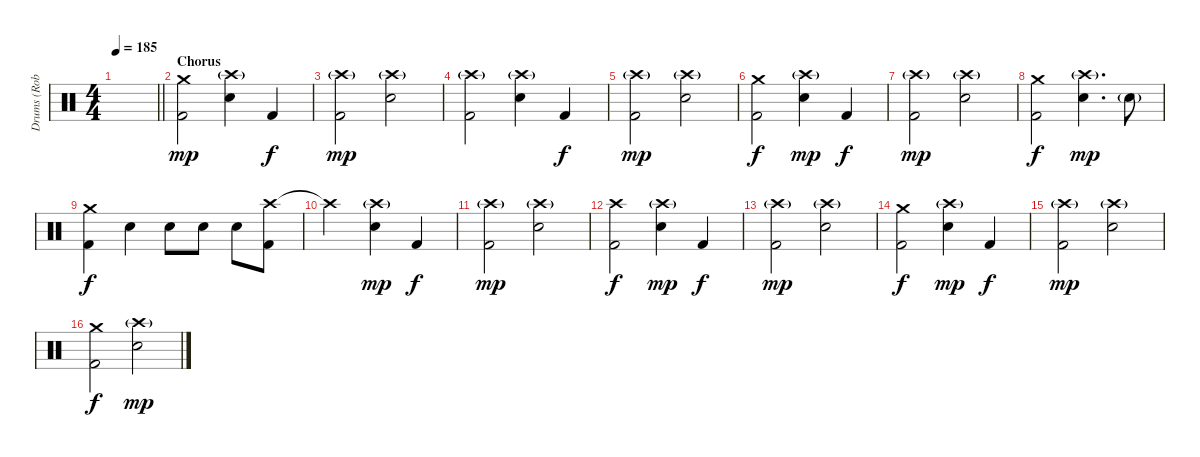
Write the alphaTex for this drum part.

\track ("Drums (Robert Ortiz)" "Drums (Rob") {instrument percussion}
\staff {score}
\articulation defaults
\ts (4 4)
\tempo 185
\clef neutral
\barLineRight lightlight
\ks c
|
\section ("" "Chorus")
("Crash medium (hit)" "Kick (hit) 2").2{dy mp} ("Crash high (hit)"{g} "Electric Snare (hit)").4 "Kick (hit) 2".4{dy f} |
("Crash high (hit)"{g} "Kick (hit) 2").2{dy mp} ("Crash high (hit)"{g} "Electric Snare (hit)").2 |
("Crash high (hit)"{g} "Kick (hit) 2").2 ("Crash high (hit)"{g} "Electric Snare (hit)").4 "Kick (hit) 2".4{dy f} |
("Crash high (hit)"{g} "Kick (hit) 2").2{dy mp} ("Crash high (hit)"{g} "Electric Snare (hit)").2 |
("Crash medium (hit)" "Kick (hit) 2").2{dy f} ("Crash high (hit)"{g} "Electric Snare (hit)").4{dy mp} "Kick (hit) 2".4{dy f} |
("Crash high (hit)"{g} "Kick (hit) 2").2{dy mp} ("Crash high (hit)"{g} "Electric Snare (hit)").2 |
("Crash medium (hit)" "Kick (hit) 2").2{dy f} ("Crash high (hit)"{g} "Electric Snare (hit)").4{d dy mp} "Electric Snare (hit)"{g}.8 |
("Crash medium (hit)" "Kick (hit) 2").4{dy f} "Electric Snare (hit)".4 "Electric Snare (hit)".8 "Electric Snare (hit)".8 "Electric Snare (hit)".8 ("Crash high (hit)" "Kick (hit) 2").8 |
"Crash high (hit)"{t}.2 ("Crash high (hit)"{g} "Electric Snare (hit)").4{dy mp} "Kick (hit) 2".4{dy f} |
("Crash high (hit)"{g} "Kick (hit) 2").2{dy mp} ("Crash high (hit)"{g} "Electric Snare (hit)").2 |
("Crash high (hit)" "Kick (hit) 2").2{dy f} ("Crash high (hit)"{g} "Electric Snare (hit)").4{dy mp} "Kick (hit) 2".4{dy f} |
("Crash high (hit)"{g} "Kick (hit) 2").2{dy mp} ("Crash high (hit)"{g} "Electric Snare (hit)").2 |
("Crash medium (hit)" "Kick (hit) 2").2{dy f} ("Crash high (hit)"{g} "Electric Snare (hit)").4{dy mp} "Kick (hit) 2".4{dy f} |
("Crash high (hit)"{g} "Kick (hit) 2").2{dy mp} ("Crash high (hit)"{g} "Electric Snare (hit)").2 |
("Crash medium (hit)" "Kick (hit) 2").2{dy f} ("Crash high (hit)"{g} "Electric Snare (hit)").2{dy mp}
